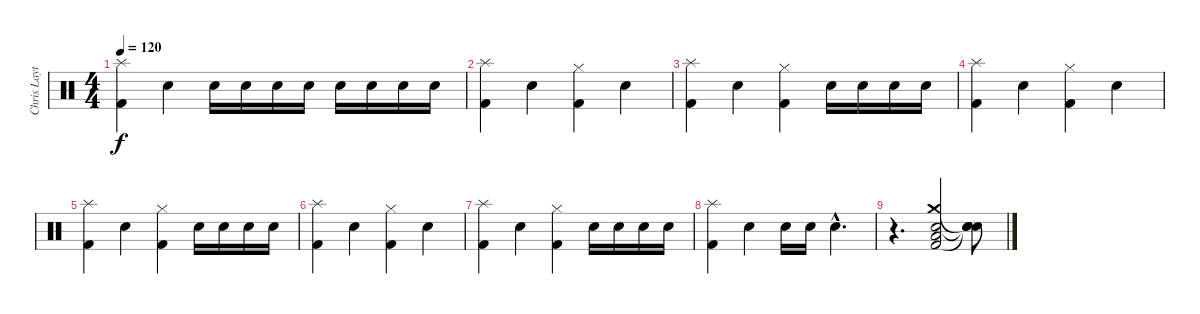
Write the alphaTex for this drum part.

\track ("Chris Layton" "Chris Layt") {instrument percussion}
\staff {score}
\articulation defaults
\ts (4 4)
\tempo 120
\clef neutral
\ks c
("Kick (hit) 2" "Splash (hit)").4{dy f} "Snare (hit) 2".4 "Snare (hit) 2".16 "Snare (hit) 2".16 "Snare (hit) 2".16 "Snare (hit) 2".16 "Snare (hit) 2".16 "Snare (hit) 2".16 "Snare (hit) 2".16 "Snare (hit) 2".16 |
("Kick (hit) 2" "Splash (hit)").4 "Snare (hit) 2".4 ("Kick (hit) 2" "Hi-Hat (closed)").4 "Snare (hit) 2".4 |
("Kick (hit) 2" "Splash (hit)").4 "Snare (hit) 2".4 ("Kick (hit) 2" "Hi-Hat (closed)").4 "Snare (hit) 2".16 "Snare (hit) 2".16 "Snare (hit) 2".16 "Snare (hit) 2".16 |
("Kick (hit) 2" "Splash (hit)").4 "Snare (hit) 2".4 ("Kick (hit) 2" "Hi-Hat (closed)").4 "Snare (hit) 2".4 |
("Kick (hit) 2" "Splash (hit)").4 "Snare (hit) 2".4 ("Kick (hit) 2" "Hi-Hat (closed)").4 "Snare (hit) 2".16 "Snare (hit) 2".16 "Snare (hit) 2".16 "Snare (hit) 2".16 |
("Kick (hit) 2" "Splash (hit)").4 "Snare (hit) 2".4 ("Kick (hit) 2" "Hi-Hat (closed)").4 "Snare (hit) 2".4 |
("Kick (hit) 2" "Splash (hit)").4 "Snare (hit) 2".4 ("Kick (hit) 2" "Hi-Hat (closed)").4 "Snare (hit) 2".16 "Snare (hit) 2".16 "Snare (hit) 2".16 "Snare (hit) 2".16 |
("Kick (hit) 2" "Splash (hit)").4 "Snare (hit) 2".4 "Snare (hit) 2".16 "Snare (hit) 2".16 "Snare (hit) 2"{hac}.4{d} |
r.4{d} ("Crash medium (hit)" "Snare (hit) 2" "Kick (hit) 2" "Low Tom (hit)").2 ("Snare (hit)"{t} "Snare (hit)"{t} "Snare (hit)"{t}).8
